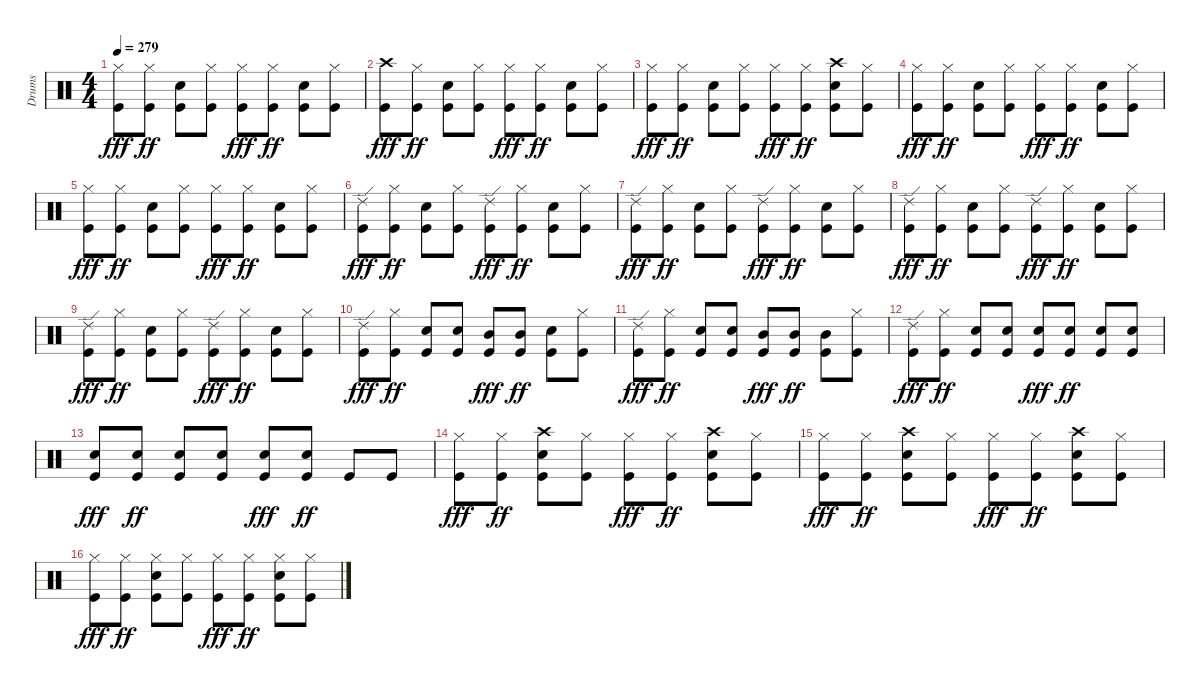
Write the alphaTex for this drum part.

\track ("Drums" "Drums") {instrument percussion}
\staff {score}
\articulation defaults
\ts (4 4)
\tempo 279
\clef neutral
\ks c
("Hi-Hat (closed)" "Kick (hit)").8{dy fff} ("Hi-Hat (closed)" "Kick (hit)").8{dy ff} ("Snare (hit) 2" "Kick (hit)").8 ("Hi-Hat (closed)" "Kick (hit)").8 ("Hi-Hat (closed)" "Kick (hit)").8{dy fff} ("Hi-Hat (closed)" "Kick (hit)").8{dy ff} ("Snare (hit) 2" "Kick (hit)").8 ("Hi-Hat (closed)" "Kick (hit)").8 |
("Crash high (hit)" "Kick (hit)").8{dy fff} ("Hi-Hat (closed)" "Kick (hit)").8{dy ff} ("Snare (hit) 2" "Kick (hit)").8 ("Hi-Hat (closed)" "Kick (hit)").8 ("Hi-Hat (closed)" "Kick (hit)").8{dy fff} ("Hi-Hat (closed)" "Kick (hit)").8{dy ff} ("Snare (hit) 2" "Kick (hit)").8 ("Hi-Hat (closed)" "Kick (hit)").8 |
("Hi-Hat (closed)" "Kick (hit)").8{dy fff} ("Hi-Hat (closed)" "Kick (hit)").8{dy ff} ("Snare (hit) 2" "Kick (hit)").8 ("Hi-Hat (closed)" "Kick (hit)").8 ("Hi-Hat (closed)" "Kick (hit)").8{dy fff} ("Hi-Hat (closed)" "Kick (hit)").8{dy ff} ("Crash high (hit)" "Snare (hit) 2" "Kick (hit)").8 ("Hi-Hat (closed)" "Kick (hit)").8 |
("Hi-Hat (closed)" "Kick (hit)").8{dy fff} ("Hi-Hat (closed)" "Kick (hit)").8{dy ff} ("Snare (hit) 2" "Kick (hit)").8 ("Hi-Hat (closed)" "Kick (hit)").8 ("Hi-Hat (closed)" "Kick (hit)").8{dy fff} ("Hi-Hat (closed)" "Kick (hit)").8{dy ff} ("Snare (hit) 2" "Kick (hit)").8 ("Hi-Hat (closed)" "Kick (hit)").8 |
("Hi-Hat (closed)" "Kick (hit)").8{dy fff} ("Hi-Hat (closed)" "Kick (hit)").8{dy ff} ("Snare (hit) 2" "Kick (hit)").8 ("Hi-Hat (closed)" "Kick (hit)").8 ("Hi-Hat (closed)" "Kick (hit)").8{dy fff} ("Hi-Hat (closed)" "Kick (hit)").8{dy ff} ("Snare (hit) 2" "Kick (hit)").8 ("Hi-Hat (closed)" "Kick (hit)").8 |
("Ride (edge) 2" "Kick (hit)").8{dy fff} ("Hi-Hat (closed)" "Kick (hit)").8{dy ff} ("Snare (hit) 2" "Kick (hit)").8 ("Hi-Hat (closed)" "Kick (hit)").8 ("Ride (edge) 2" "Kick (hit)").8{dy fff} ("Hi-Hat (closed)" "Kick (hit)").8{dy ff} ("Snare (hit) 2" "Kick (hit)").8 ("Hi-Hat (closed)" "Kick (hit)").8 |
("Ride (edge) 2" "Kick (hit)").8{dy fff} ("Hi-Hat (closed)" "Kick (hit)").8{dy ff} ("Snare (hit) 2" "Kick (hit)").8 ("Hi-Hat (closed)" "Kick (hit)").8 ("Ride (edge) 2" "Kick (hit)").8{dy fff} ("Hi-Hat (closed)" "Kick (hit)").8{dy ff} ("Snare (hit) 2" "Kick (hit)").8 ("Hi-Hat (closed)" "Kick (hit)").8 |
("Ride (edge) 2" "Kick (hit)").8{dy fff} ("Hi-Hat (closed)" "Kick (hit)").8{dy ff} ("Snare (hit) 2" "Kick (hit)").8 ("Hi-Hat (closed)" "Kick (hit)").8 ("Ride (edge) 2" "Kick (hit)").8{dy fff} ("Hi-Hat (closed)" "Kick (hit)").8{dy ff} ("Snare (hit) 2" "Kick (hit)").8 ("Hi-Hat (closed)" "Kick (hit)").8 |
("Ride (edge) 2" "Kick (hit)").8{dy fff} ("Hi-Hat (closed)" "Kick (hit)").8{dy ff} ("Snare (hit) 2" "Kick (hit)").8 ("Hi-Hat (closed)" "Kick (hit)").8 ("Ride (edge) 2" "Kick (hit)").8{dy fff} ("Hi-Hat (closed)" "Kick (hit)").8{dy ff} ("Snare (hit) 2" "Kick (hit)").8 ("Hi-Hat (closed)" "Kick (hit)").8 |
("Ride (edge) 2" "Kick (hit)").8{dy fff} ("Hi-Hat (closed)" "Kick (hit)").8{dy ff} ("Snare (hit) 2" "Kick (hit)").8 ("Snare (hit) 2" "Kick (hit)").8 ("Mid Tom (hit)" "Kick (hit)").8{dy fff} ("Mid Tom (hit)" "Kick (hit)").8{dy ff} ("Snare (hit) 2" "Kick (hit)").8 ("Hi-Hat (closed)" "Kick (hit)").8 |
("Ride (edge) 2" "Kick (hit)").8{dy fff} ("Hi-Hat (closed)" "Kick (hit)").8{dy ff} ("Snare (hit) 2" "Kick (hit)").8 ("Snare (hit) 2" "Kick (hit)").8 ("Mid Tom (hit)" "Kick (hit)").8{dy fff} ("Mid Tom (hit)" "Kick (hit)").8{dy ff} ("Mid Tom (hit)" "Kick (hit)").8 ("Hi-Hat (closed)" "Kick (hit)").8 |
("Ride (edge) 2" "Kick (hit)").8{dy fff} ("Hi-Hat (closed)" "Kick (hit)").8{dy ff} ("Snare (hit) 2" "Kick (hit)").8{volume 8} ("Snare (hit) 2" "Kick (hit)").8{volume 14} ("Snare (hit) 2" "Kick (hit)").8{dy fff} ("Snare (hit) 2" "Kick (hit)").8{dy ff} ("Snare (hit) 2" "Kick (hit)").8 ("Snare (hit) 2" "Kick (hit)").8 |
("Snare (hit) 2" "Kick (hit)").8{dy fff} ("Snare (hit) 2" "Kick (hit)").8{dy ff} ("Snare (hit) 2" "Kick (hit)").8 ("Snare (hit) 2" "Kick (hit)").8 ("Snare (hit) 2" "Kick (hit)").8{dy fff} ("Snare (hit) 2" "Kick (hit)").8{dy ff} "Kick (hit)".8 "Kick (hit)".8 |
("Hi-Hat (closed)" "Kick (hit)").8{dy fff} ("Hi-Hat (closed)" "Kick (hit)").8{dy ff} ("Crash high (hit)" "Snare (hit) 2" "Kick (hit)").8 ("Hi-Hat (closed)" "Kick (hit)").8 ("Hi-Hat (closed)" "Kick (hit)").8{dy fff} ("Hi-Hat (closed)" "Kick (hit)").8{dy ff} ("Crash high (hit)" "Snare (hit) 2" "Kick (hit)").8 ("Hi-Hat (closed)" "Kick (hit)").8 |
("Hi-Hat (closed)" "Kick (hit)").8{dy fff} ("Hi-Hat (closed)" "Kick (hit)").8{dy ff} ("Crash high (hit)" "Snare (hit) 2" "Kick (hit)").8 ("Hi-Hat (closed)" "Kick (hit)").8 ("Hi-Hat (closed)" "Kick (hit)").8{dy fff} ("Hi-Hat (closed)" "Kick (hit)").8{dy ff} ("Crash high (hit)" "Snare (hit) 2" "Kick (hit)").8 ("Hi-Hat (closed)" "Kick (hit)").8 |
("Hi-Hat (closed)" "Kick (hit)").8{dy fff} ("Hi-Hat (closed)" "Kick (hit)").8{dy ff} ("Hi-Hat (closed)" "Snare (hit) 2" "Kick (hit)").8 ("Hi-Hat (closed)" "Kick (hit)").8 ("Hi-Hat (closed)" "Kick (hit)").8{dy fff} ("Hi-Hat (closed)" "Kick (hit)").8{dy ff} ("Hi-Hat (closed)" "Snare (hit) 2" "Kick (hit)").8 ("Hi-Hat (closed)" "Kick (hit)").8
